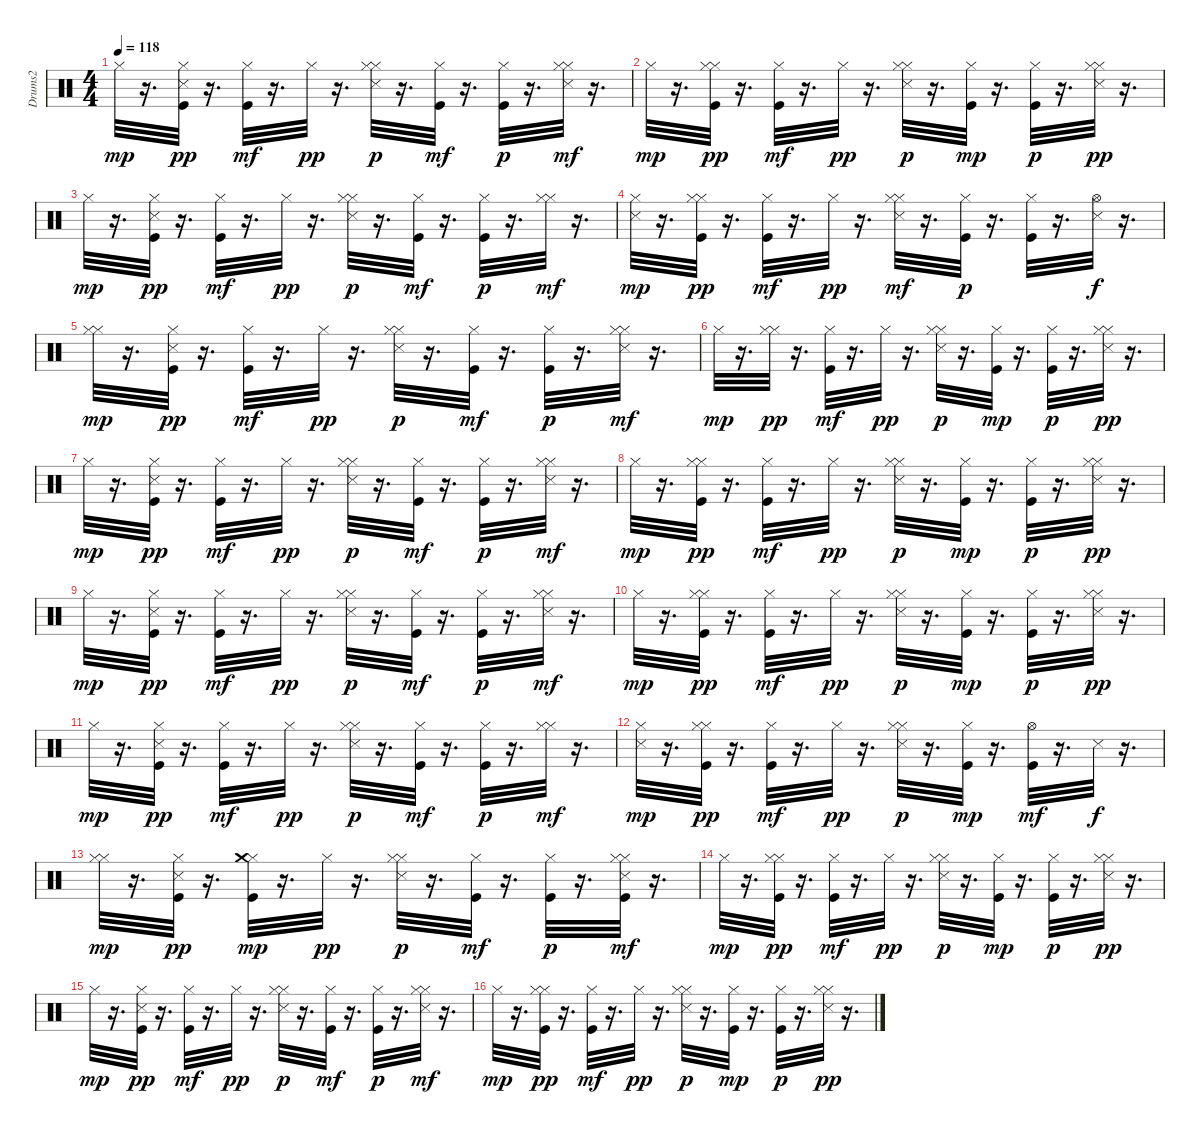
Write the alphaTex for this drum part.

\track ("Drums2" "Drums2") {instrument percussion}
\staff {score}
\articulation defaults
\ts (4 4)
\tempo 118
\clef neutral
\ks c "Hi-Hat (closed)".32{dy mp}
r.16{d} ("Kick (hit)" "Snare (side stick) 3" "Hi-Hat (closed)").32{dy pp} r.16{d} ("Kick (hit)" "Hi-Hat (closed)").32{dy mf} r.16{d} "Hi-Hat (closed)".32{dy pp} r.16{d} ("Hi-Hat (closed)" "Snare (side stick) 3" "Hi-Hat (closed)").32{dy p} r.16{d} ("Kick (hit)" "Hi-Hat (closed)").32{dy mf} r.16{d} ("Kick (hit)" "Hi-Hat (closed)").32{dy p} r.16{d} ("Hi-Hat (closed)" "Snare (side stick) 3" "Hi-Hat (closed)").32{dy mf} r.16{d} |
"Hi-Hat (closed)".32{dy mp} r.16{d} ("Hi-Hat (closed)" "Kick (hit)" "Hi-Hat (closed)").32{dy pp} r.16{d} ("Kick (hit)" "Hi-Hat (closed)").32{dy mf} r.16{d} "Hi-Hat (closed)".32{dy pp} r.16{d} ("Hi-Hat (closed)" "Snare (side stick) 3" "Hi-Hat (closed)").32{dy p} r.16{d} ("Kick (hit)" "Hi-Hat (closed)").32{dy mp} r.16{d} ("Kick (hit)" "Hi-Hat (closed)").32{dy p} r.16{d} ("Hi-Hat (closed)" "Snare (side stick) 3" "Hi-Hat (closed)").32{dy pp} r.16{d} |
"Hi-Hat (closed)".32{dy mp} r.16{d} ("Kick (hit)" "Snare (side stick) 3" "Hi-Hat (closed)").32{dy pp} r.16{d} ("Kick (hit)" "Hi-Hat (closed)").32{dy mf} r.16{d} "Hi-Hat (closed)".32{dy pp} r.16{d} ("Hi-Hat (closed)" "Snare (side stick) 3" "Hi-Hat (closed)").32{dy p} r.16{d} ("Kick (hit)" "Hi-Hat (closed)").32{dy mf} r.16{d} ("Kick (hit)" "Hi-Hat (closed)").32{dy p} r.16{d} ("Hi-Hat (closed)" "Hi-Hat (closed)").32{dy mf} r.16{d} |
("Snare (side stick) 3" "Hi-Hat (closed)").32{dy mp} r.16{d} ("Hi-Hat (closed)" "Kick (hit)" "Hi-Hat (closed)").32{dy pp} r.16{d} ("Kick (hit)" "Hi-Hat (closed)").32{dy mf} r.16{d} "Hi-Hat (closed)".32{dy pp} r.16{d} ("Hi-Hat (closed)" "Snare (side stick) 3" "Hi-Hat (closed)").32{dy mf} r.16{d} ("Kick (hit)" "Hi-Hat (closed)").32{dy p} r.16{d} ("Kick (hit)" "Hi-Hat (closed)").32 r.16{d} ("Snare (side stick) 3" "Hi-Hat (open)").32{dy f} r.16{d} |
("Hi-Hat (closed)" "Hi-Hat (closed)").32{dy mp} r.16{d} ("Kick (hit)" "Snare (side stick) 3" "Hi-Hat (closed)").32{dy pp} r.16{d} ("Kick (hit)" "Hi-Hat (closed)").32{dy mf} r.16{d} "Hi-Hat (closed)".32{dy pp} r.16{d} ("Hi-Hat (closed)" "Snare (side stick) 3" "Hi-Hat (closed)").32{dy p} r.16{d} ("Kick (hit)" "Hi-Hat (closed)").32{dy mf} r.16{d} ("Kick (hit)" "Hi-Hat (closed)").32{dy p} r.16{d} ("Hi-Hat (closed)" "Snare (side stick) 3" "Hi-Hat (closed)").32{dy mf} r.16{d} |
"Hi-Hat (closed)".32{dy mp} r.16{d} ("Hi-Hat (closed)" "Hi-Hat (closed)").32{dy pp} r.16{d} ("Kick (hit)" "Hi-Hat (closed)").32{dy mf} r.16{d} "Hi-Hat (closed)".32{dy pp} r.16{d} ("Hi-Hat (closed)" "Snare (side stick) 3" "Hi-Hat (closed)").32{dy p} r.16{d} ("Kick (hit)" "Hi-Hat (closed)").32{dy mp} r.16{d} ("Kick (hit)" "Hi-Hat (closed)").32{dy p} r.16{d} ("Hi-Hat (closed)" "Snare (side stick) 3" "Hi-Hat (closed)").32{dy pp} r.16{d} |
"Hi-Hat (closed)".32{dy mp} r.16{d} ("Kick (hit)" "Snare (side stick) 3" "Hi-Hat (closed)").32{dy pp} r.16{d} ("Kick (hit)" "Hi-Hat (closed)").32{dy mf} r.16{d} "Hi-Hat (closed)".32{dy pp} r.16{d} ("Hi-Hat (closed)" "Snare (side stick) 3" "Hi-Hat (closed)").32{dy p} r.16{d} ("Kick (hit)" "Hi-Hat (closed)").32{dy mf} r.16{d} ("Kick (hit)" "Hi-Hat (closed)").32{dy p} r.16{d} ("Hi-Hat (closed)" "Snare (side stick) 3" "Hi-Hat (closed)").32{dy mf} r.16{d} |
"Hi-Hat (closed)".32{dy mp} r.16{d} ("Hi-Hat (closed)" "Kick (hit)" "Hi-Hat (closed)").32{dy pp} r.16{d} ("Kick (hit)" "Hi-Hat (closed)").32{dy mf} r.16{d} "Hi-Hat (closed)".32{dy pp} r.16{d} ("Hi-Hat (closed)" "Snare (side stick) 3" "Hi-Hat (closed)").32{dy p} r.16{d} ("Kick (hit)" "Hi-Hat (closed)").32{dy mp} r.16{d} ("Kick (hit)" "Hi-Hat (closed)").32{dy p} r.16{d} ("Hi-Hat (closed)" "Snare (side stick) 3" "Hi-Hat (closed)").32{dy pp} r.16{d} |
"Hi-Hat (closed)".32{dy mp} r.16{d} ("Kick (hit)" "Snare (side stick) 3" "Hi-Hat (closed)").32{dy pp} r.16{d} ("Kick (hit)" "Hi-Hat (closed)").32{dy mf} r.16{d} "Hi-Hat (closed)".32{dy pp} r.16{d} ("Hi-Hat (closed)" "Snare (side stick) 3" "Hi-Hat (closed)").32{dy p} r.16{d} ("Kick (hit)" "Hi-Hat (closed)").32{dy mf} r.16{d} ("Kick (hit)" "Hi-Hat (closed)").32{dy p} r.16{d} ("Hi-Hat (closed)" "Snare (side stick) 3" "Hi-Hat (closed)").32{dy mf} r.16{d} |
"Hi-Hat (closed)".32{dy mp} r.16{d} ("Hi-Hat (closed)" "Kick (hit)" "Hi-Hat (closed)").32{dy pp} r.16{d} ("Kick (hit)" "Hi-Hat (closed)").32{dy mf} r.16{d} "Hi-Hat (closed)".32{dy pp} r.16{d} ("Hi-Hat (closed)" "Snare (side stick) 3" "Hi-Hat (closed)").32{dy p} r.16{d} ("Kick (hit)" "Hi-Hat (closed)").32{dy mp} r.16{d} ("Kick (hit)" "Hi-Hat (closed)").32{dy p} r.16{d} ("Hi-Hat (closed)" "Snare (side stick) 3" "Hi-Hat (closed)").32{dy pp} r.16{d} |
"Hi-Hat (closed)".32{dy mp} r.16{d} ("Kick (hit)" "Snare (side stick) 3" "Hi-Hat (closed)").32{dy pp} r.16{d} ("Kick (hit)" "Hi-Hat (closed)").32{dy mf} r.16{d} "Hi-Hat (closed)".32{dy pp} r.16{d} ("Hi-Hat (closed)" "Snare (side stick) 3" "Hi-Hat (closed)").32{dy p} r.16{d} ("Kick (hit)" "Hi-Hat (closed)").32{dy mf} r.16{d} ("Kick (hit)" "Hi-Hat (closed)").32{dy p} r.16{d} ("Hi-Hat (closed)" "Hi-Hat (closed)").32{dy mf} r.16{d} |
("Snare (side stick) 3" "Hi-Hat (closed)").32{dy mp} r.16{d} ("Hi-Hat (closed)" "Kick (hit)" "Hi-Hat (closed)").32{dy pp} r.16{d} ("Kick (hit)" "Hi-Hat (closed)").32{dy mf} r.16{d} "Hi-Hat (closed)".32{dy pp} r.16{d} ("Hi-Hat (closed)" "Snare (side stick) 3" "Hi-Hat (closed)").32{dy p} r.16{d} ("Kick (hit)" "Hi-Hat (closed)").32{dy mp} r.16{d} ("Kick (hit)" "Hi-Hat (open)").32{dy mf} r.16{d} "Snare (side stick) 3".32{dy f} r.16{d} |
("Hi-Hat (closed)" "Hi-Hat (closed)").32{dy mp} r.16{d} ("Kick (hit)" "Snare (side stick) 3" "Hi-Hat (closed)").32{dy pp} r.16{d} ("Kick (hit)" "Hi-Hat (closed)" "Crash medium (hit)").32{dy mp} r.16{d} "Hi-Hat (closed)".32{dy pp} r.16{d} ("Hi-Hat (closed)" "Snare (side stick) 3" "Hi-Hat (closed)").32{dy p} r.16{d} ("Kick (hit)" "Hi-Hat (closed)").32{dy mf} r.16{d} ("Kick (hit)" "Hi-Hat (closed)").32{dy p} r.16{d} ("Hi-Hat (closed)" "Kick (hit)" "Snare (side stick) 3" "Hi-Hat (closed)").32{dy mf} r.16{d} |
"Hi-Hat (closed)".32{dy mp} r.16{d} ("Hi-Hat (closed)" "Kick (hit)" "Hi-Hat (closed)").32{dy pp} r.16{d} ("Kick (hit)" "Hi-Hat (closed)").32{dy mf} r.16{d} "Hi-Hat (closed)".32{dy pp} r.16{d} ("Hi-Hat (closed)" "Snare (side stick) 3" "Hi-Hat (closed)").32{dy p} r.16{d} ("Kick (hit)" "Hi-Hat (closed)").32{dy mp} r.16{d} ("Kick (hit)" "Hi-Hat (closed)").32{dy p} r.16{d} ("Hi-Hat (closed)" "Snare (side stick) 3" "Hi-Hat (closed)").32{dy pp} r.16{d} |
"Hi-Hat (closed)".32{dy mp} r.16{d} ("Kick (hit)" "Snare (side stick) 3" "Hi-Hat (closed)").32{dy pp} r.16{d} ("Kick (hit)" "Hi-Hat (closed)").32{dy mf} r.16{d} "Hi-Hat (closed)".32{dy pp} r.16{d} ("Hi-Hat (closed)" "Snare (side stick) 3" "Hi-Hat (closed)").32{dy p} r.16{d} ("Kick (hit)" "Hi-Hat (closed)").32{dy mf} r.16{d} ("Kick (hit)" "Hi-Hat (closed)").32{dy p} r.16{d} ("Hi-Hat (closed)" "Snare (side stick) 3" "Hi-Hat (closed)").32{dy mf} r.16{d} |
"Hi-Hat (closed)".32{dy mp} r.16{d} ("Hi-Hat (closed)" "Kick (hit)" "Hi-Hat (closed)").32{dy pp} r.16{d} ("Kick (hit)" "Hi-Hat (closed)").32{dy mf} r.16{d} "Hi-Hat (closed)".32{dy pp} r.16{d} ("Hi-Hat (closed)" "Snare (side stick) 3" "Hi-Hat (closed)").32{dy p} r.16{d} ("Kick (hit)" "Hi-Hat (closed)").32{dy mp} r.16{d} ("Kick (hit)" "Hi-Hat (closed)").32{dy p} r.16{d} ("Hi-Hat (closed)" "Snare (side stick) 3" "Hi-Hat (closed)").32{dy pp} r.16{d}
